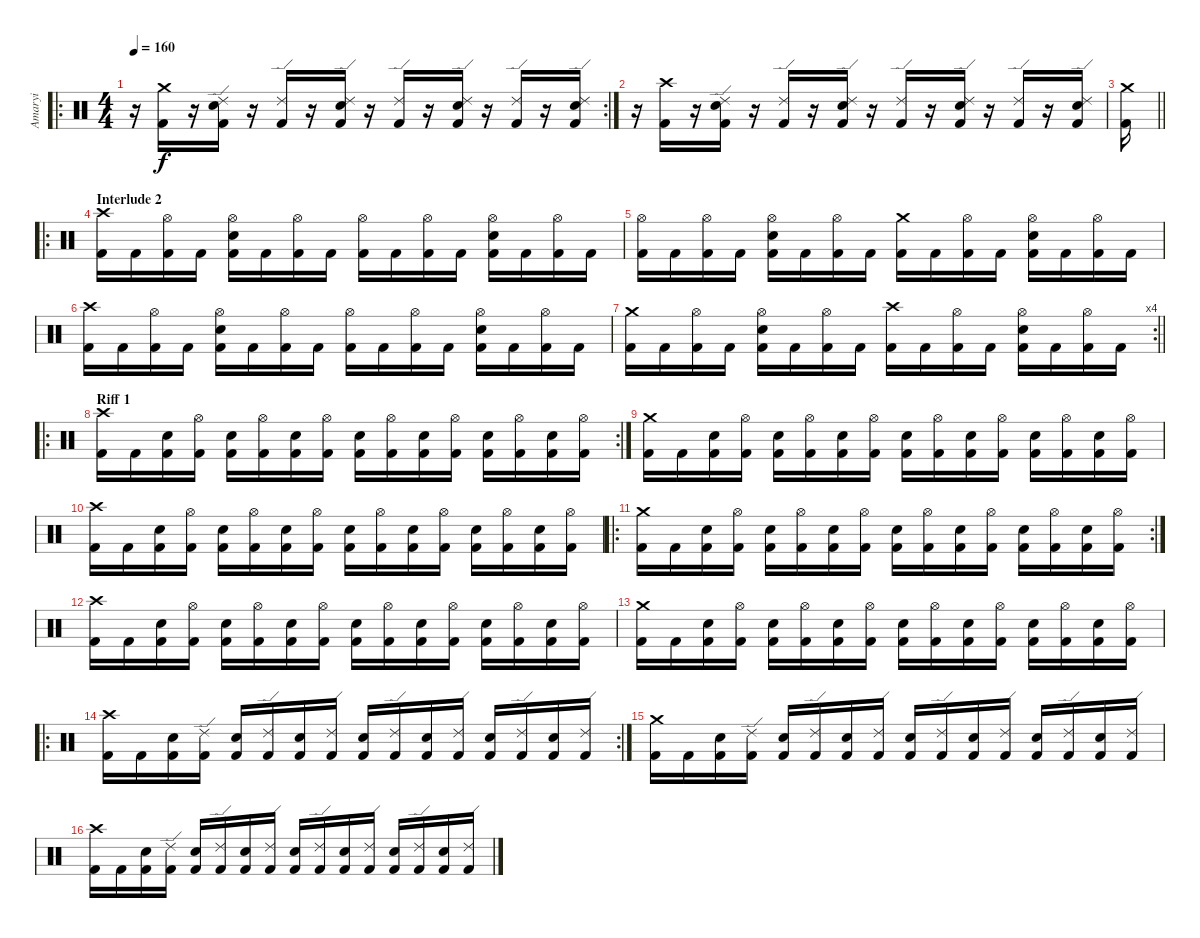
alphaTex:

\track ("Amaryi" "Amaryi") {instrument percussion}
\staff {score}
\articulation defaults
\ro
\rc 2
\ts (4 4)
\tempo 160
\clef neutral
\ks c
r.16{dy f} ("Crash medium (hit)" "Kick (hit) 2").16 r.16 ("Electric Snare (hit)" "Ride (edge) 2" "Kick (hit) 2").16 r.16 ("Ride (edge) 2" "Kick (hit) 2").16 r.16 ("Electric Snare (hit)" "Ride (edge) 2" "Kick (hit) 2").16 r.16 ("Ride (edge) 2" "Kick (hit) 2").16 r.16 ("Electric Snare (hit)" "Ride (edge) 2" "Kick (hit) 2").16 r.16 ("Ride (edge) 2" "Kick (hit) 2").16 r.16 ("Electric Snare (hit)" "Ride (edge) 2" "Kick (hit) 2").16 |
r.16 ("Crash high (hit)" "Kick (hit) 2").16 r.16 ("Electric Snare (hit)" "Ride (edge) 2" "Kick (hit) 2").16 r.16 ("Ride (edge) 2" "Kick (hit) 2").16 r.16 ("Electric Snare (hit)" "Ride (edge) 2" "Kick (hit) 2").16 r.16 ("Ride (edge) 2" "Kick (hit) 2").16 r.16 ("Electric Snare (hit)" "Ride (edge) 2" "Kick (hit) 2").16 r.16 ("Ride (edge) 2" "Kick (hit) 2").16 r.16 ("Electric Snare (hit)" "Ride (edge) 2" "Kick (hit) 2").16 |
\barLineRight lightlight
("Crash medium (hit)" "Kick (hit) 2").16 |
\ro
\section ("" "Interlude 2")
("Crash high (hit)" "Kick (hit) 2").16 "Kick (hit) 2".16 ("Hi-Hat (open)" "Kick (hit) 2").16 "Kick (hit) 2".16 ("Hi-Hat (open)" "Electric Snare (hit)" "Kick (hit) 2").16 "Kick (hit) 2".16 ("Hi-Hat (open)" "Kick (hit) 2").16 "Kick (hit) 2".16 ("Hi-Hat (open)" "Kick (hit) 2").16 "Kick (hit) 2".16 ("Hi-Hat (open)" "Kick (hit) 2").16 "Kick (hit) 2".16 ("Hi-Hat (open)" "Electric Snare (hit)" "Kick (hit) 2").16 "Kick (hit) 2".16 ("Hi-Hat (open)" "Kick (hit) 2").16 "Kick (hit) 2".16 |
("Hi-Hat (open)" "Kick (hit) 2").16 "Kick (hit) 2".16 ("Hi-Hat (open)" "Kick (hit) 2").16 "Kick (hit) 2".16 ("Hi-Hat (open)" "Electric Snare (hit)" "Kick (hit) 2").16 "Kick (hit) 2".16 ("Hi-Hat (open)" "Kick (hit) 2").16 "Kick (hit) 2".16 ("Crash medium (hit)" "Kick (hit) 2").16 "Kick (hit) 2".16 ("Hi-Hat (open)" "Kick (hit) 2").16 "Kick (hit) 2".16 ("Hi-Hat (open)" "Electric Snare (hit)" "Kick (hit) 2").16 "Kick (hit) 2".16 ("Hi-Hat (open)" "Kick (hit) 2").16 "Kick (hit) 2".16 |
("Crash high (hit)" "Kick (hit) 2").16 "Kick (hit) 2".16 ("Hi-Hat (open)" "Kick (hit) 2").16 "Kick (hit) 2".16 ("Hi-Hat (open)" "Electric Snare (hit)" "Kick (hit) 2").16 "Kick (hit) 2".16 ("Hi-Hat (open)" "Kick (hit) 2").16 "Kick (hit) 2".16 ("Hi-Hat (open)" "Kick (hit) 2").16 "Kick (hit) 2".16 ("Hi-Hat (open)" "Kick (hit) 2").16 "Kick (hit) 2".16 ("Hi-Hat (open)" "Electric Snare (hit)" "Kick (hit) 2").16 "Kick (hit) 2".16 ("Hi-Hat (open)" "Kick (hit) 2").16 "Kick (hit) 2".16 |
\rc 4
\barLineRight lightlight
("Crash medium (hit)" "Kick (hit) 2").16 "Kick (hit) 2".16 ("Hi-Hat (open)" "Kick (hit) 2").16 "Kick (hit) 2".16 ("Hi-Hat (open)" "Electric Snare (hit)" "Kick (hit) 2").16 "Kick (hit) 2".16 ("Hi-Hat (open)" "Kick (hit) 2").16 "Kick (hit) 2".16 ("Crash high (hit)" "Kick (hit) 2").16 "Kick (hit) 2".16 ("Hi-Hat (open)" "Kick (hit) 2").16 "Kick (hit) 2".16 ("Hi-Hat (open)" "Electric Snare (hit)" "Kick (hit) 2").16 "Kick (hit) 2".16 ("Hi-Hat (open)" "Kick (hit) 2").16 "Kick (hit) 2".16 |
\ro
\rc 2
\section ("" "Riff 1")
("Crash high (hit)" "Kick (hit) 2").16 "Kick (hit) 2".16 ("Electric Snare (hit)" "Kick (hit) 2").16 ("Hi-Hat (open)" "Kick (hit) 2").16 ("Electric Snare (hit)" "Kick (hit) 2").16 ("Hi-Hat (open)" "Kick (hit) 2").16 ("Electric Snare (hit)" "Kick (hit) 2").16 ("Hi-Hat (open)" "Kick (hit) 2").16 ("Electric Snare (hit)" "Kick (hit) 2").16 ("Hi-Hat (open)" "Kick (hit) 2").16 ("Electric Snare (hit)" "Kick (hit) 2").16 ("Hi-Hat (open)" "Kick (hit) 2").16 ("Electric Snare (hit)" "Kick (hit) 2").16 ("Hi-Hat (open)" "Kick (hit) 2").16 ("Electric Snare (hit)" "Kick (hit) 2").16 ("Hi-Hat (open)" "Kick (hit) 2").16 |
("Crash medium (hit)" "Kick (hit) 2").16 "Kick (hit) 2".16 ("Electric Snare (hit)" "Kick (hit) 2").16 ("Hi-Hat (open)" "Kick (hit) 2").16 ("Electric Snare (hit)" "Kick (hit) 2").16 ("Hi-Hat (open)" "Kick (hit) 2").16 ("Electric Snare (hit)" "Kick (hit) 2").16 ("Hi-Hat (open)" "Kick (hit) 2").16 ("Electric Snare (hit)" "Kick (hit) 2").16 ("Hi-Hat (open)" "Kick (hit) 2").16 ("Electric Snare (hit)" "Kick (hit) 2").16 ("Hi-Hat (open)" "Kick (hit) 2").16 ("Electric Snare (hit)" "Kick (hit) 2").16 ("Hi-Hat (open)" "Kick (hit) 2").16 ("Electric Snare (hit)" "Kick (hit) 2").16 ("Hi-Hat (open)" "Kick (hit) 2").16 |
("Crash high (hit)" "Kick (hit) 2").16 "Kick (hit) 2".16 ("Electric Snare (hit)" "Kick (hit) 2").16 ("Hi-Hat (open)" "Kick (hit) 2").16 ("Electric Snare (hit)" "Kick (hit) 2").16 ("Hi-Hat (open)" "Kick (hit) 2").16 ("Electric Snare (hit)" "Kick (hit) 2").16 ("Hi-Hat (open)" "Kick (hit) 2").16 ("Electric Snare (hit)" "Kick (hit) 2").16 ("Hi-Hat (open)" "Kick (hit) 2").16 ("Electric Snare (hit)" "Kick (hit) 2").16 ("Hi-Hat (open)" "Kick (hit) 2").16 ("Electric Snare (hit)" "Kick (hit) 2").16 ("Hi-Hat (open)" "Kick (hit) 2").16 ("Electric Snare (hit)" "Kick (hit) 2").16 ("Hi-Hat (open)" "Kick (hit) 2").16 |
\ro
\rc 2
("Crash medium (hit)" "Kick (hit) 2").16 "Kick (hit) 2".16 ("Electric Snare (hit)" "Kick (hit) 2").16 ("Hi-Hat (open)" "Kick (hit) 2").16 ("Electric Snare (hit)" "Kick (hit) 2").16 ("Hi-Hat (open)" "Kick (hit) 2").16 ("Electric Snare (hit)" "Kick (hit) 2").16 ("Hi-Hat (open)" "Kick (hit) 2").16 ("Electric Snare (hit)" "Kick (hit) 2").16 ("Hi-Hat (open)" "Kick (hit) 2").16 ("Electric Snare (hit)" "Kick (hit) 2").16 ("Hi-Hat (open)" "Kick (hit) 2").16 ("Electric Snare (hit)" "Kick (hit) 2").16 ("Hi-Hat (open)" "Kick (hit) 2").16 ("Electric Snare (hit)" "Kick (hit) 2").16 ("Hi-Hat (open)" "Kick (hit) 2").16 |
("Crash high (hit)" "Kick (hit) 2").16 "Kick (hit) 2".16 ("Electric Snare (hit)" "Kick (hit) 2").16 ("Hi-Hat (open)" "Kick (hit) 2").16 ("Electric Snare (hit)" "Kick (hit) 2").16 ("Hi-Hat (open)" "Kick (hit) 2").16 ("Electric Snare (hit)" "Kick (hit) 2").16 ("Hi-Hat (open)" "Kick (hit) 2").16 ("Electric Snare (hit)" "Kick (hit) 2").16 ("Hi-Hat (open)" "Kick (hit) 2").16 ("Electric Snare (hit)" "Kick (hit) 2").16 ("Hi-Hat (open)" "Kick (hit) 2").16 ("Electric Snare (hit)" "Kick (hit) 2").16 ("Hi-Hat (open)" "Kick (hit) 2").16 ("Electric Snare (hit)" "Kick (hit) 2").16 ("Hi-Hat (open)" "Kick (hit) 2").16 |
("Crash medium (hit)" "Kick (hit) 2").16 "Kick (hit) 2".16 ("Electric Snare (hit)" "Kick (hit) 2").16 ("Hi-Hat (open)" "Kick (hit) 2").16 ("Electric Snare (hit)" "Kick (hit) 2").16 ("Hi-Hat (open)" "Kick (hit) 2").16 ("Electric Snare (hit)" "Kick (hit) 2").16 ("Hi-Hat (open)" "Kick (hit) 2").16 ("Electric Snare (hit)" "Kick (hit) 2").16 ("Hi-Hat (open)" "Kick (hit) 2").16 ("Electric Snare (hit)" "Kick (hit) 2").16 ("Hi-Hat (open)" "Kick (hit) 2").16 ("Electric Snare (hit)" "Kick (hit) 2").16 ("Hi-Hat (open)" "Kick (hit) 2").16 ("Electric Snare (hit)" "Kick (hit) 2").16 ("Hi-Hat (open)" "Kick (hit) 2").16 |
\ro
\rc 2
("Crash high (hit)" "Kick (hit) 2").16 "Kick (hit) 2".16 ("Electric Snare (hit)" "Kick (hit) 2").16 ("Ride (edge) 2" "Kick (hit) 2").16 ("Electric Snare (hit)" "Kick (hit) 2").16 ("Ride (edge) 2" "Kick (hit) 2").16 ("Electric Snare (hit)" "Kick (hit) 2").16 ("Ride (edge) 2" "Kick (hit) 2").16 ("Electric Snare (hit)" "Kick (hit) 2").16 ("Ride (edge) 2" "Kick (hit) 2").16 ("Electric Snare (hit)" "Kick (hit) 2").16 ("Ride (edge) 2" "Kick (hit) 2").16 ("Electric Snare (hit)" "Kick (hit) 2").16 ("Ride (edge) 2" "Kick (hit) 2").16 ("Electric Snare (hit)" "Kick (hit) 2").16 ("Ride (edge) 2" "Kick (hit) 2").16 |
("Crash medium (hit)" "Kick (hit) 2").16 "Kick (hit) 2".16 ("Electric Snare (hit)" "Kick (hit) 2").16 ("Ride (edge) 2" "Kick (hit) 2").16 ("Electric Snare (hit)" "Kick (hit) 2").16 ("Ride (edge) 2" "Kick (hit) 2").16 ("Electric Snare (hit)" "Kick (hit) 2").16 ("Ride (edge) 2" "Kick (hit) 2").16 ("Electric Snare (hit)" "Kick (hit) 2").16 ("Ride (edge) 2" "Kick (hit) 2").16 ("Electric Snare (hit)" "Kick (hit) 2").16 ("Ride (edge) 2" "Kick (hit) 2").16 ("Electric Snare (hit)" "Kick (hit) 2").16 ("Ride (edge) 2" "Kick (hit) 2").16 ("Electric Snare (hit)" "Kick (hit) 2").16 ("Ride (edge) 2" "Kick (hit) 2").16 |
("Crash high (hit)" "Kick (hit) 2").16 "Kick (hit) 2".16 ("Electric Snare (hit)" "Kick (hit) 2").16 ("Ride (edge) 2" "Kick (hit) 2").16 ("Electric Snare (hit)" "Kick (hit) 2").16 ("Ride (edge) 2" "Kick (hit) 2").16 ("Electric Snare (hit)" "Kick (hit) 2").16 ("Ride (edge) 2" "Kick (hit) 2").16 ("Electric Snare (hit)" "Kick (hit) 2").16 ("Ride (edge) 2" "Kick (hit) 2").16 ("Electric Snare (hit)" "Kick (hit) 2").16 ("Ride (edge) 2" "Kick (hit) 2").16 ("Electric Snare (hit)" "Kick (hit) 2").16 ("Ride (edge) 2" "Kick (hit) 2").16 ("Electric Snare (hit)" "Kick (hit) 2").16 ("Ride (edge) 2" "Kick (hit) 2").16
